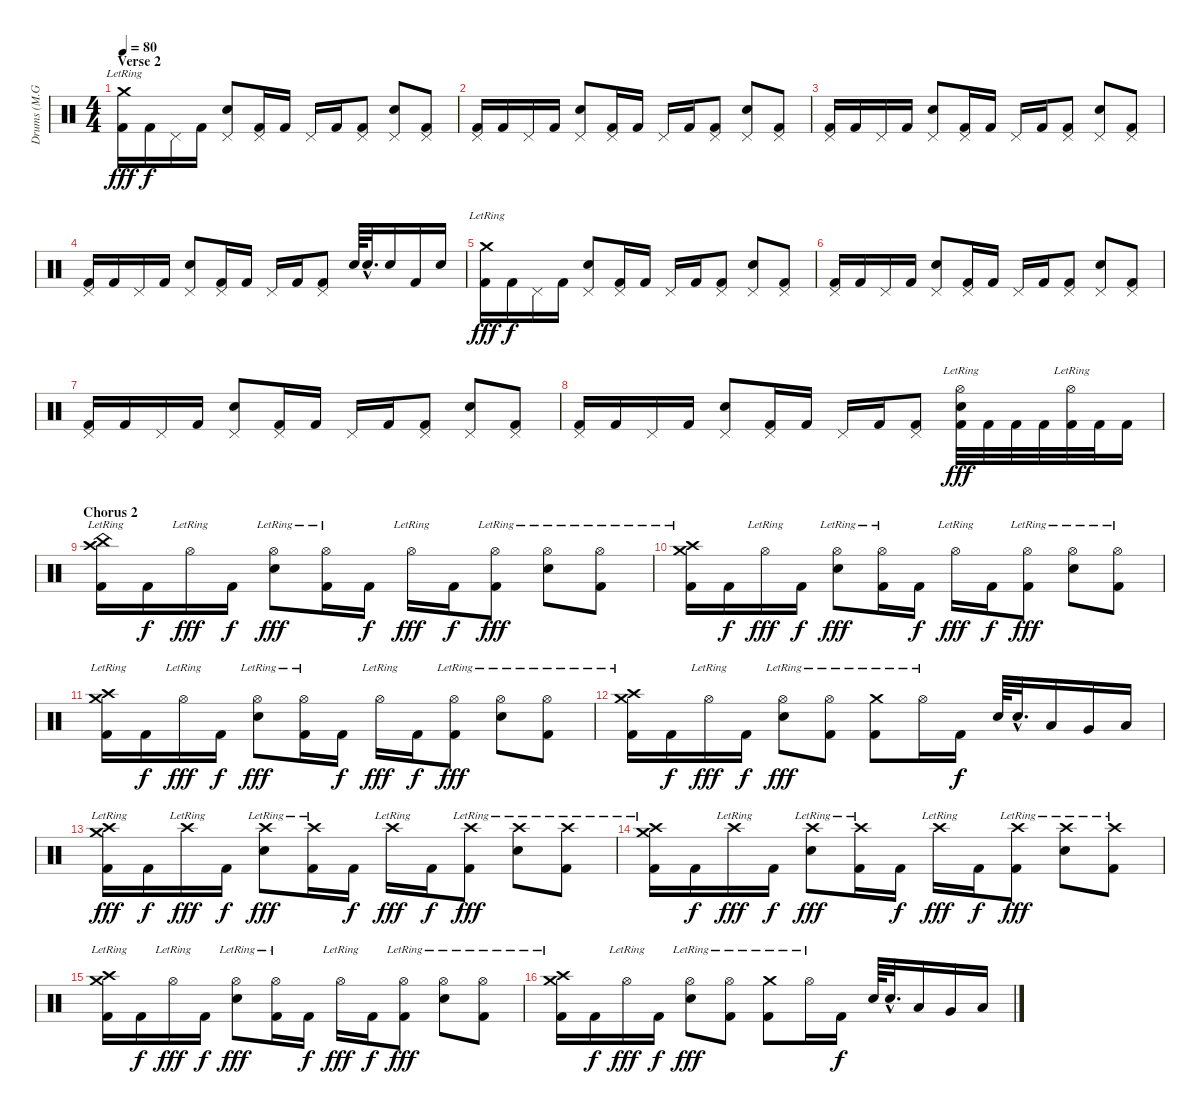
\track ("Drums (M.Grosskopf)" "Drums (M.G") {instrument percussion}
\staff {score}
\articulation defaults
\ts (4 4)
\section ("" "Verse 2")
\tempo 80
\clef neutral
\ks c
("Crash medium (hit)"{lr} "Kick (hit) 2").16{dy fff} "Kick (hit) 2".16{dy f} "Pedal Hi-Hat (hit)".16 "Kick (hit) 2".16 ("Pedal Hi-Hat (hit)" "Electric Snare (hit)").8 ("Pedal Hi-Hat (hit)" "Kick (hit) 2").16 "Kick (hit) 2".16 "Pedal Hi-Hat (hit)".16 "Kick (hit) 2".16 ("Pedal Hi-Hat (hit)" "Kick (hit) 2").8 ("Pedal Hi-Hat (hit)" "Electric Snare (hit)").8 ("Pedal Hi-Hat (hit)" "Kick (hit) 2").8 |
("Pedal Hi-Hat (hit)" "Kick (hit) 2").16 "Kick (hit) 2".16 "Pedal Hi-Hat (hit)".16 "Kick (hit) 2".16 ("Pedal Hi-Hat (hit)" "Electric Snare (hit)").8 ("Pedal Hi-Hat (hit)" "Kick (hit) 2").16 "Kick (hit) 2".16 "Pedal Hi-Hat (hit)".16 "Kick (hit) 2".16 ("Pedal Hi-Hat (hit)" "Kick (hit) 2").8 ("Pedal Hi-Hat (hit)" "Electric Snare (hit)").8 ("Pedal Hi-Hat (hit)" "Kick (hit) 2").8 |
("Pedal Hi-Hat (hit)" "Kick (hit) 2").16 "Kick (hit) 2".16 "Pedal Hi-Hat (hit)".16 "Kick (hit) 2".16 ("Pedal Hi-Hat (hit)" "Electric Snare (hit)").8 ("Pedal Hi-Hat (hit)" "Kick (hit) 2").16 "Kick (hit) 2".16 "Pedal Hi-Hat (hit)".16 "Kick (hit) 2".16 ("Pedal Hi-Hat (hit)" "Kick (hit) 2").8 ("Pedal Hi-Hat (hit)" "Electric Snare (hit)").8 ("Pedal Hi-Hat (hit)" "Kick (hit) 2").8 |
("Pedal Hi-Hat (hit)" "Kick (hit) 2").16 "Kick (hit) 2".16 "Pedal Hi-Hat (hit)".16 "Kick (hit) 2".16 ("Pedal Hi-Hat (hit)" "Electric Snare (hit)").8 ("Pedal Hi-Hat (hit)" "Kick (hit) 2").16 "Kick (hit) 2".16 "Pedal Hi-Hat (hit)".16 "Kick (hit) 2".16 ("Pedal Hi-Hat (hit)" "Kick (hit) 2").8 "Electric Snare (hit)".64 "Electric Snare (hit)"{hac}.32{d} "Electric Snare (hit)".16 "Kick (hit) 2".16 "Electric Snare (hit)".16 |
("Crash medium (hit)"{lr} "Kick (hit) 2").16{dy fff} "Kick (hit) 2".16{dy f} "Pedal Hi-Hat (hit)".16 "Kick (hit) 2".16 ("Pedal Hi-Hat (hit)" "Electric Snare (hit)").8 ("Pedal Hi-Hat (hit)" "Kick (hit) 2").16 "Kick (hit) 2".16 "Pedal Hi-Hat (hit)".16 "Kick (hit) 2".16 ("Pedal Hi-Hat (hit)" "Kick (hit) 2").8 ("Pedal Hi-Hat (hit)" "Electric Snare (hit)").8 ("Pedal Hi-Hat (hit)" "Kick (hit) 2").8 |
("Pedal Hi-Hat (hit)" "Kick (hit) 2").16 "Kick (hit) 2".16 "Pedal Hi-Hat (hit)".16 "Kick (hit) 2".16 ("Pedal Hi-Hat (hit)" "Electric Snare (hit)").8 ("Pedal Hi-Hat (hit)" "Kick (hit) 2").16 "Kick (hit) 2".16 "Pedal Hi-Hat (hit)".16 "Kick (hit) 2".16 ("Pedal Hi-Hat (hit)" "Kick (hit) 2").8 ("Pedal Hi-Hat (hit)" "Electric Snare (hit)").8 ("Pedal Hi-Hat (hit)" "Kick (hit) 2").8 |
("Pedal Hi-Hat (hit)" "Kick (hit) 2").16 "Kick (hit) 2".16 "Pedal Hi-Hat (hit)".16 "Kick (hit) 2".16 ("Pedal Hi-Hat (hit)" "Electric Snare (hit)").8 ("Pedal Hi-Hat (hit)" "Kick (hit) 2").16 "Kick (hit) 2".16 "Pedal Hi-Hat (hit)".16 "Kick (hit) 2".16 ("Pedal Hi-Hat (hit)" "Kick (hit) 2").8 ("Pedal Hi-Hat (hit)" "Electric Snare (hit)").8 ("Pedal Hi-Hat (hit)" "Kick (hit) 2").8 |
("Pedal Hi-Hat (hit)" "Kick (hit) 2").16 "Kick (hit) 2".16 "Pedal Hi-Hat (hit)".16 "Kick (hit) 2".16 ("Pedal Hi-Hat (hit)" "Electric Snare (hit)").8 ("Pedal Hi-Hat (hit)" "Kick (hit) 2").16 "Kick (hit) 2".16 "Pedal Hi-Hat (hit)".16 "Kick (hit) 2".16 ("Pedal Hi-Hat (hit)" "Kick (hit) 2").8 ("Hi-Hat (open)"{lr} "Electric Snare (hit)" "Kick (hit) 2").32{dy fff} "Kick (hit) 2".32 "Kick (hit) 2".32 "Kick (hit) 2".32 ("Hi-Hat (open)"{lr} "Kick (hit) 2").32 "Kick (hit) 2".32 "Kick (hit) 2".16 |
\section ("" "Chorus 2")
("Crash high (hit)"{lr} "Kick (hit) 2" "China (hit)"{lr}).16 "Kick (hit) 2".16{dy f} "Hi-Hat (open)"{lr}.16{dy fff} "Kick (hit) 2".16{dy f} ("Hi-Hat (open)"{lr} "Electric Snare (hit)").8{dy fff} ("Hi-Hat (open)"{lr} "Kick (hit) 2").16 "Kick (hit) 2".16{dy f} "Hi-Hat (open)"{lr}.16{dy fff} "Kick (hit) 2".16{dy f} ("Hi-Hat (open)"{lr} "Kick (hit) 2").8{dy fff} ("Hi-Hat (open)"{lr} "Electric Snare (hit)").8 ("Hi-Hat (open)"{lr} "Kick (hit) 2").8 |
("Crash high (hit)"{lr} "Crash medium (hit)"{lr} "Kick (hit) 2").16 "Kick (hit) 2".16{dy f} "Hi-Hat (open)"{lr}.16{dy fff} "Kick (hit) 2".16{dy f} ("Hi-Hat (open)"{lr} "Electric Snare (hit)").8{dy fff} ("Hi-Hat (open)"{lr} "Kick (hit) 2").16 "Kick (hit) 2".16{dy f} "Hi-Hat (open)"{lr}.16{dy fff} "Kick (hit) 2".16{dy f} ("Hi-Hat (open)"{lr} "Kick (hit) 2").8{dy fff} ("Hi-Hat (open)"{lr} "Electric Snare (hit)").8 ("Hi-Hat (open)"{lr} "Kick (hit) 2").8 |
("Crash high (hit)"{lr} "Crash medium (hit)"{lr} "Kick (hit) 2").16 "Kick (hit) 2".16{dy f} "Hi-Hat (open)"{lr}.16{dy fff} "Kick (hit) 2".16{dy f} ("Hi-Hat (open)"{lr} "Electric Snare (hit)").8{dy fff} ("Hi-Hat (open)"{lr} "Kick (hit) 2").16 "Kick (hit) 2".16{dy f} "Hi-Hat (open)"{lr}.16{dy fff} "Kick (hit) 2".16{dy f} ("Hi-Hat (open)"{lr} "Kick (hit) 2").8{dy fff} ("Hi-Hat (open)"{lr} "Electric Snare (hit)").8 ("Hi-Hat (open)"{lr} "Kick (hit) 2").8 |
("Crash high (hit)"{lr} "Crash medium (hit)"{lr} "Kick (hit) 2").16 "Kick (hit) 2".16{dy f} "Hi-Hat (open)"{lr}.16{dy fff} "Kick (hit) 2".16{dy f} ("Hi-Hat (open)"{lr} "Electric Snare (hit)").8{dy fff} ("Hi-Hat (open)"{lr} "Kick (hit) 2").8 ("Crash medium (hit)"{lr} "Kick (hit) 2").8 "Hi-Hat (open)"{lr}.16 "Kick (hit) 2".16{dy f} "Electric Snare (hit)".64 "Electric Snare (hit)"{hac}.32{d} "Low Tom (hit)".16 "Very Low Tom (hit)".16 "Low Floor Tom (hit)".16 |
("Crash high (hit)"{lr} "Crash medium (hit)"{lr} "Kick (hit) 2").16{dy fff} "Kick (hit) 2".16{dy f} "Crash high (hit)"{lr}.16{dy fff} "Kick (hit) 2".16{dy f} ("Crash high (hit)"{lr} "Electric Snare (hit)").8{dy fff} ("Crash high (hit)"{lr} "Kick (hit) 2").16 "Kick (hit) 2".16{dy f} "Crash high (hit)"{lr}.16{dy fff} "Kick (hit) 2".16{dy f} ("Crash high (hit)"{lr} "Kick (hit) 2").8{dy fff} ("Crash high (hit)"{lr} "Electric Snare (hit)").8 ("Crash high (hit)"{lr} "Kick (hit) 2").8 |
("Crash high (hit)"{lr} "Crash medium (hit)"{lr} "Kick (hit) 2").16 "Kick (hit) 2".16{dy f} "Crash high (hit)"{lr}.16{dy fff} "Kick (hit) 2".16{dy f} ("Crash high (hit)"{lr} "Electric Snare (hit)").8{dy fff} ("Crash high (hit)"{lr} "Kick (hit) 2").16 "Kick (hit) 2".16{dy f} "Crash high (hit)"{lr}.16{dy fff} "Kick (hit) 2".16{dy f} ("Crash high (hit)"{lr} "Kick (hit) 2").8{dy fff} ("Crash high (hit)"{lr} "Electric Snare (hit)").8 ("Crash high (hit)"{lr} "Kick (hit) 2").8 |
("Crash high (hit)"{lr} "Crash medium (hit)"{lr} "Kick (hit) 2").16 "Kick (hit) 2".16{dy f} "Hi-Hat (open)"{lr}.16{dy fff} "Kick (hit) 2".16{dy f} ("Hi-Hat (open)"{lr} "Electric Snare (hit)").8{dy fff} ("Hi-Hat (open)"{lr} "Kick (hit) 2").16 "Kick (hit) 2".16{dy f} "Hi-Hat (open)"{lr}.16{dy fff} "Kick (hit) 2".16{dy f} ("Hi-Hat (open)"{lr} "Kick (hit) 2").8{dy fff} ("Hi-Hat (open)"{lr} "Electric Snare (hit)").8 ("Hi-Hat (open)"{lr} "Kick (hit) 2").8 |
("Crash high (hit)"{lr} "Crash medium (hit)"{lr} "Kick (hit) 2").16 "Kick (hit) 2".16{dy f} "Hi-Hat (open)"{lr}.16{dy fff} "Kick (hit) 2".16{dy f} ("Hi-Hat (open)"{lr} "Electric Snare (hit)").8{dy fff} ("Hi-Hat (open)"{lr} "Kick (hit) 2").8 ("Crash medium (hit)"{lr} "Kick (hit) 2").8 "Hi-Hat (open)"{lr}.16 "Kick (hit) 2".16{dy f} "Electric Snare (hit)".64 "Electric Snare (hit)"{hac}.32{d} "Low Tom (hit)".16 "Very Low Tom (hit)".16 "Low Floor Tom (hit)".16
